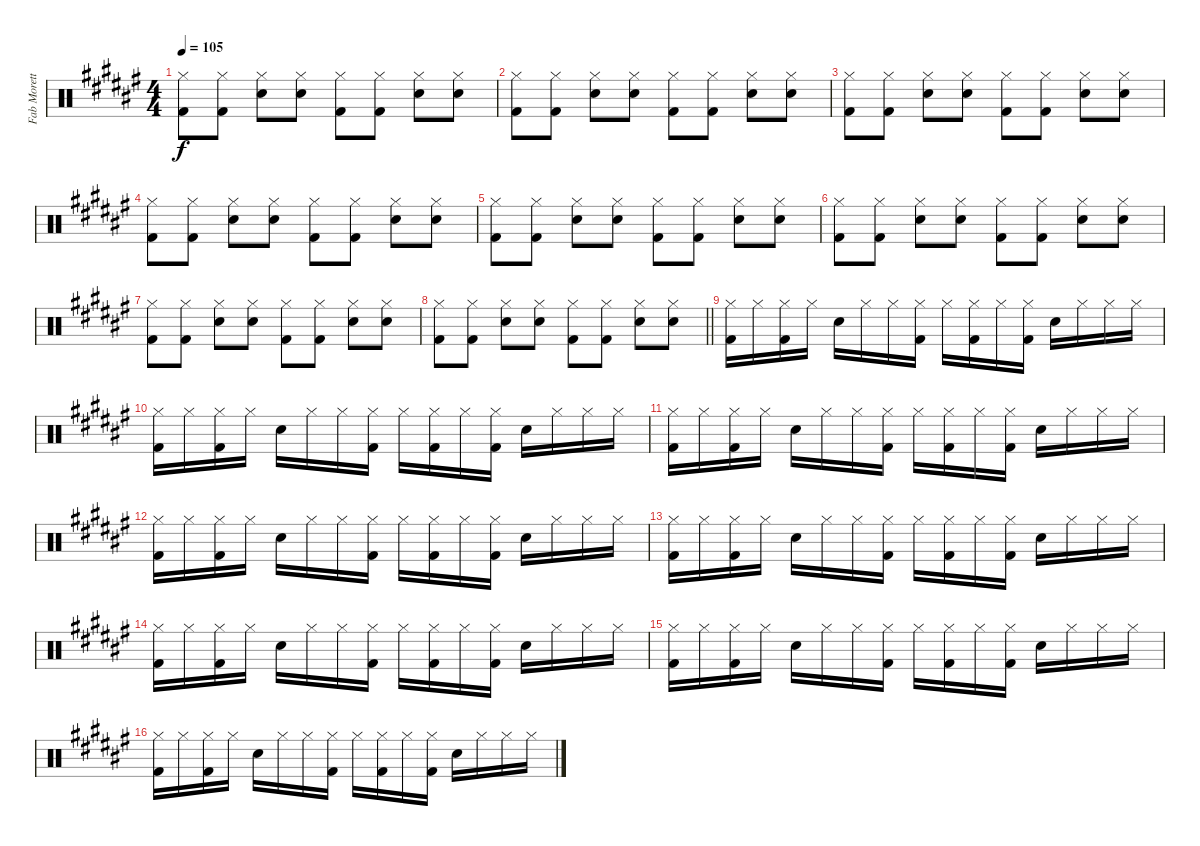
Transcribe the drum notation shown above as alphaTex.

\track ("Fab Moretti - Drums" "Fab Morett") {instrument percussion}
\staff {score}
\articulation defaults
\ts (4 4)
\tempo 105
\clef neutral
\ks f#
("Hi-Hat (closed)" "Kick (hit) 2").8{dy f} ("Hi-Hat (closed)" "Kick (hit) 2").8 ("Hi-Hat (closed)" "Snare (hit) 2").8 ("Hi-Hat (closed)" "Snare (hit) 2").8 ("Hi-Hat (closed)" "Kick (hit) 2").8 ("Hi-Hat (closed)" "Kick (hit) 2").8 ("Hi-Hat (closed)" "Snare (hit) 2").8 ("Hi-Hat (closed)" "Snare (hit) 2").8 |
("Hi-Hat (closed)" "Kick (hit) 2").8 ("Hi-Hat (closed)" "Kick (hit) 2").8 ("Hi-Hat (closed)" "Snare (hit) 2").8 ("Hi-Hat (closed)" "Snare (hit) 2").8 ("Hi-Hat (closed)" "Kick (hit) 2").8 ("Hi-Hat (closed)" "Kick (hit) 2").8 ("Hi-Hat (closed)" "Snare (hit) 2").8 ("Hi-Hat (closed)" "Snare (hit) 2").8 |
("Hi-Hat (closed)" "Kick (hit) 2").8 ("Hi-Hat (closed)" "Kick (hit) 2").8 ("Hi-Hat (closed)" "Snare (hit) 2").8 ("Hi-Hat (closed)" "Snare (hit) 2").8 ("Hi-Hat (closed)" "Kick (hit) 2").8 ("Hi-Hat (closed)" "Kick (hit) 2").8 ("Hi-Hat (closed)" "Snare (hit) 2").8 ("Hi-Hat (closed)" "Snare (hit) 2").8 |
("Hi-Hat (closed)" "Kick (hit) 2").8 ("Hi-Hat (closed)" "Kick (hit) 2").8 ("Hi-Hat (closed)" "Snare (hit) 2").8 ("Hi-Hat (closed)" "Snare (hit) 2").8 ("Hi-Hat (closed)" "Kick (hit) 2").8 ("Hi-Hat (closed)" "Kick (hit) 2").8 ("Hi-Hat (closed)" "Snare (hit) 2").8 ("Hi-Hat (closed)" "Snare (hit) 2").8 |
("Hi-Hat (closed)" "Kick (hit) 2").8 ("Hi-Hat (closed)" "Kick (hit) 2").8 ("Hi-Hat (closed)" "Snare (hit) 2").8 ("Hi-Hat (closed)" "Snare (hit) 2").8 ("Hi-Hat (closed)" "Kick (hit) 2").8 ("Hi-Hat (closed)" "Kick (hit) 2").8 ("Hi-Hat (closed)" "Snare (hit) 2").8 ("Hi-Hat (closed)" "Snare (hit) 2").8 |
("Hi-Hat (closed)" "Kick (hit) 2").8 ("Hi-Hat (closed)" "Kick (hit) 2").8 ("Hi-Hat (closed)" "Snare (hit) 2").8 ("Hi-Hat (closed)" "Snare (hit) 2").8 ("Hi-Hat (closed)" "Kick (hit) 2").8 ("Hi-Hat (closed)" "Kick (hit) 2").8 ("Hi-Hat (closed)" "Snare (hit) 2").8 ("Hi-Hat (closed)" "Snare (hit) 2").8 |
("Hi-Hat (closed)" "Kick (hit) 2").8 ("Hi-Hat (closed)" "Kick (hit) 2").8 ("Hi-Hat (closed)" "Snare (hit) 2").8 ("Hi-Hat (closed)" "Snare (hit) 2").8 ("Hi-Hat (closed)" "Kick (hit) 2").8 ("Hi-Hat (closed)" "Kick (hit) 2").8 ("Hi-Hat (closed)" "Snare (hit) 2").8 ("Hi-Hat (closed)" "Snare (hit) 2").8 |
\barLineRight lightlight
("Hi-Hat (closed)" "Kick (hit) 2").8 ("Hi-Hat (closed)" "Kick (hit) 2").8 ("Hi-Hat (closed)" "Snare (hit) 2").8 ("Hi-Hat (closed)" "Snare (hit) 2").8 ("Hi-Hat (closed)" "Kick (hit) 2").8 ("Hi-Hat (closed)" "Kick (hit) 2").8 ("Hi-Hat (closed)" "Snare (hit) 2").8 ("Hi-Hat (closed)" "Snare (hit) 2").8 |
("Hi-Hat (closed)" "Kick (hit) 2").16 "Hi-Hat (closed)".16 ("Hi-Hat (closed)" "Kick (hit) 2").16 "Hi-Hat (closed)".16 "Snare (hit) 2".16 "Hi-Hat (closed)".16 "Hi-Hat (closed)".16 ("Hi-Hat (closed)" "Kick (hit) 2").16 "Hi-Hat (closed)".16 ("Hi-Hat (closed)" "Kick (hit) 2").16 "Hi-Hat (closed)".16 ("Hi-Hat (closed)" "Kick (hit) 2").16 "Snare (hit) 2".16 "Hi-Hat (closed)".16 "Hi-Hat (closed)".16 "Hi-Hat (closed)".16 |
("Hi-Hat (closed)" "Kick (hit) 2").16 "Hi-Hat (closed)".16 ("Hi-Hat (closed)" "Kick (hit) 2").16 "Hi-Hat (closed)".16 "Snare (hit) 2".16 "Hi-Hat (closed)".16 "Hi-Hat (closed)".16 ("Hi-Hat (closed)" "Kick (hit) 2").16 "Hi-Hat (closed)".16 ("Hi-Hat (closed)" "Kick (hit) 2").16 "Hi-Hat (closed)".16 ("Hi-Hat (closed)" "Kick (hit) 2").16 "Snare (hit) 2".16 "Hi-Hat (closed)".16 "Hi-Hat (closed)".16 "Hi-Hat (closed)".16 |
("Hi-Hat (closed)" "Kick (hit) 2").16 "Hi-Hat (closed)".16 ("Hi-Hat (closed)" "Kick (hit) 2").16 "Hi-Hat (closed)".16 "Snare (hit) 2".16 "Hi-Hat (closed)".16 "Hi-Hat (closed)".16 ("Hi-Hat (closed)" "Kick (hit) 2").16 "Hi-Hat (closed)".16 ("Hi-Hat (closed)" "Kick (hit) 2").16 "Hi-Hat (closed)".16 ("Hi-Hat (closed)" "Kick (hit) 2").16 "Snare (hit) 2".16 "Hi-Hat (closed)".16 "Hi-Hat (closed)".16 "Hi-Hat (closed)".16 |
("Hi-Hat (closed)" "Kick (hit) 2").16 "Hi-Hat (closed)".16 ("Hi-Hat (closed)" "Kick (hit) 2").16 "Hi-Hat (closed)".16 "Snare (hit) 2".16 "Hi-Hat (closed)".16 "Hi-Hat (closed)".16 ("Hi-Hat (closed)" "Kick (hit) 2").16 "Hi-Hat (closed)".16 ("Hi-Hat (closed)" "Kick (hit) 2").16 "Hi-Hat (closed)".16 ("Hi-Hat (closed)" "Kick (hit) 2").16 "Snare (hit) 2".16 "Hi-Hat (closed)".16 "Hi-Hat (closed)".16 "Hi-Hat (closed)".16 |
("Hi-Hat (closed)" "Kick (hit) 2").16 "Hi-Hat (closed)".16 ("Hi-Hat (closed)" "Kick (hit) 2").16 "Hi-Hat (closed)".16 "Snare (hit) 2".16 "Hi-Hat (closed)".16 "Hi-Hat (closed)".16 ("Hi-Hat (closed)" "Kick (hit) 2").16 "Hi-Hat (closed)".16 ("Hi-Hat (closed)" "Kick (hit) 2").16 "Hi-Hat (closed)".16 ("Hi-Hat (closed)" "Kick (hit) 2").16 "Snare (hit) 2".16 "Hi-Hat (closed)".16 "Hi-Hat (closed)".16 "Hi-Hat (closed)".16 |
("Hi-Hat (closed)" "Kick (hit) 2").16 "Hi-Hat (closed)".16 ("Hi-Hat (closed)" "Kick (hit) 2").16 "Hi-Hat (closed)".16 "Snare (hit) 2".16 "Hi-Hat (closed)".16 "Hi-Hat (closed)".16 ("Hi-Hat (closed)" "Kick (hit) 2").16 "Hi-Hat (closed)".16 ("Hi-Hat (closed)" "Kick (hit) 2").16 "Hi-Hat (closed)".16 ("Hi-Hat (closed)" "Kick (hit) 2").16 "Snare (hit) 2".16 "Hi-Hat (closed)".16 "Hi-Hat (closed)".16 "Hi-Hat (closed)".16 |
("Hi-Hat (closed)" "Kick (hit) 2").16 "Hi-Hat (closed)".16 ("Hi-Hat (closed)" "Kick (hit) 2").16 "Hi-Hat (closed)".16 "Snare (hit) 2".16 "Hi-Hat (closed)".16 "Hi-Hat (closed)".16 ("Hi-Hat (closed)" "Kick (hit) 2").16 "Hi-Hat (closed)".16 ("Hi-Hat (closed)" "Kick (hit) 2").16 "Hi-Hat (closed)".16 ("Hi-Hat (closed)" "Kick (hit) 2").16 "Snare (hit) 2".16 "Hi-Hat (closed)".16 "Hi-Hat (closed)".16 "Hi-Hat (closed)".16 |
("Hi-Hat (closed)" "Kick (hit) 2").16 "Hi-Hat (closed)".16 ("Hi-Hat (closed)" "Kick (hit) 2").16 "Hi-Hat (closed)".16 "Snare (hit) 2".16 "Hi-Hat (closed)".16 "Hi-Hat (closed)".16 ("Hi-Hat (closed)" "Kick (hit) 2").16 "Hi-Hat (closed)".16 ("Hi-Hat (closed)" "Kick (hit) 2").16 "Hi-Hat (closed)".16 ("Hi-Hat (closed)" "Kick (hit) 2").16 "Snare (hit) 2".16 "Hi-Hat (closed)".16 "Hi-Hat (closed)".16 "Hi-Hat (closed)".16
